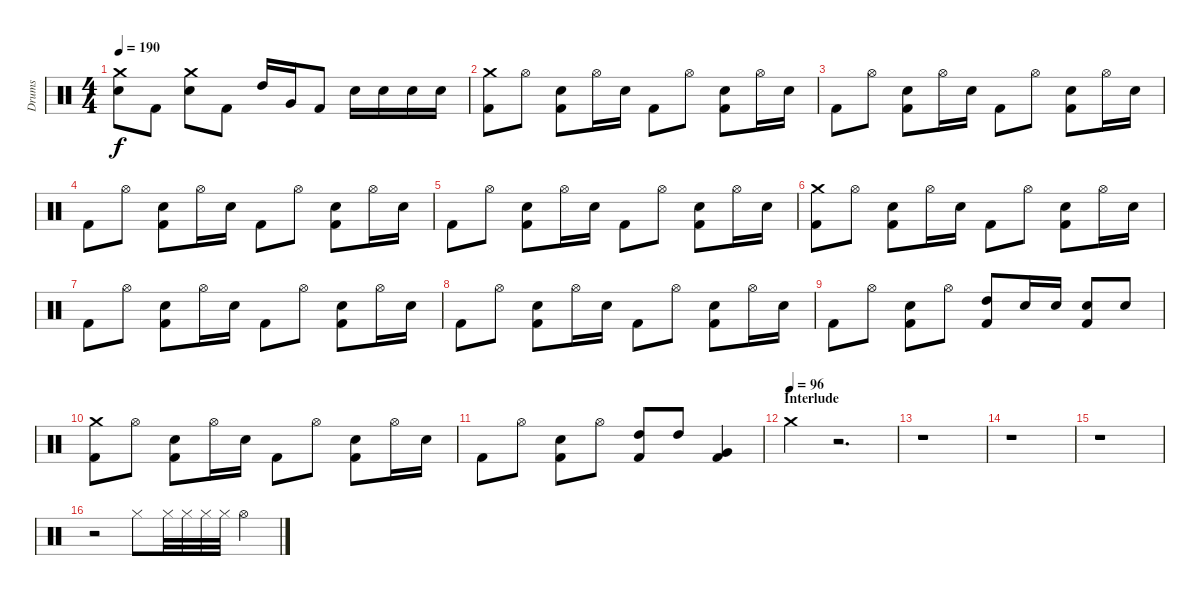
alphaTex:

\track ("Drums" "Drums") {instrument percussion}
\staff {score}
\articulation defaults
\ts (4 4)
\tempo 190
\clef neutral
\ks c
("Crash medium (hit)" "Snare (hit) 2").8{dy f} "Kick (hit) 2".8 ("Crash medium (hit)" "Snare (hit) 2").8 "Kick (hit) 2".8 "High Tom (hit)".16 "Very Low Tom (hit)".16 "Kick (hit) 2".8 "Snare (hit) 2".16 "Snare (hit) 2".16 "Snare (hit) 2".16 "Snare (hit) 2".16 |
("Crash medium (hit)" "Kick (hit) 2").8 "Hi-Hat (open)".8 ("Snare (hit) 2" "Kick (hit) 2").8 "Hi-Hat (open)".16 "Snare (hit) 2".16 "Kick (hit) 2".8 "Hi-Hat (open)".8 ("Snare (hit) 2" "Kick (hit) 2").8 "Hi-Hat (open)".16 "Snare (hit) 2".16 |
"Kick (hit) 2".8 "Hi-Hat (open)".8 ("Snare (hit) 2" "Kick (hit) 2").8 "Hi-Hat (open)".16 "Snare (hit) 2".16 "Kick (hit) 2".8 "Hi-Hat (open)".8 ("Snare (hit) 2" "Kick (hit) 2").8 "Hi-Hat (open)".16 "Snare (hit) 2".16 |
"Kick (hit) 2".8 "Hi-Hat (open)".8 ("Snare (hit) 2" "Kick (hit) 2").8 "Hi-Hat (open)".16 "Snare (hit) 2".16 "Kick (hit) 2".8 "Hi-Hat (open)".8 ("Snare (hit) 2" "Kick (hit) 2").8 "Hi-Hat (open)".16 "Snare (hit) 2".16 |
"Kick (hit) 2".8 "Hi-Hat (open)".8 ("Snare (hit) 2" "Kick (hit) 2").8 "Hi-Hat (open)".16 "Snare (hit) 2".16 "Kick (hit) 2".8 "Hi-Hat (open)".8 ("Snare (hit) 2" "Kick (hit) 2").8 "Hi-Hat (open)".16 "Snare (hit) 2".16 |
("Crash medium (hit)" "Kick (hit) 2").8 "Hi-Hat (open)".8 ("Snare (hit) 2" "Kick (hit) 2").8 "Hi-Hat (open)".16 "Snare (hit) 2".16 "Kick (hit) 2".8 "Hi-Hat (open)".8 ("Snare (hit) 2" "Kick (hit) 2").8 "Hi-Hat (open)".16 "Snare (hit) 2".16 |
"Kick (hit) 2".8 "Hi-Hat (open)".8 ("Snare (hit) 2" "Kick (hit) 2").8 "Hi-Hat (open)".16 "Snare (hit) 2".16 "Kick (hit) 2".8 "Hi-Hat (open)".8 ("Snare (hit) 2" "Kick (hit) 2").8 "Hi-Hat (open)".16 "Snare (hit) 2".16 |
"Kick (hit) 2".8 "Hi-Hat (open)".8 ("Snare (hit) 2" "Kick (hit) 2").8 "Hi-Hat (open)".16 "Snare (hit) 2".16 "Kick (hit) 2".8 "Hi-Hat (open)".8 ("Snare (hit) 2" "Kick (hit) 2").8 "Hi-Hat (open)".16 "Snare (hit) 2".16 |
"Kick (hit) 2".8 "Hi-Hat (open)".8 ("Snare (hit) 2" "Kick (hit) 2").8 "Hi-Hat (open)".8 ("High Tom (hit)" "Kick (hit) 2").8 "Snare (hit) 2".16 "Snare (hit) 2".16 ("Snare (hit) 2" "Kick (hit) 2").8 "Snare (hit) 2".8 |
("Crash medium (hit)" "Kick (hit) 2").8 "Hi-Hat (open)".8 ("Snare (hit) 2" "Kick (hit) 2").8 "Hi-Hat (open)".16 "Snare (hit) 2".16 "Kick (hit) 2".8 "Hi-Hat (open)".8 ("Snare (hit) 2" "Kick (hit) 2").8 "Hi-Hat (open)".16 "Snare (hit) 2".16 |
"Kick (hit) 2".8 "Hi-Hat (open)".8 ("Snare (hit) 2" "Kick (hit) 2").8 "Hi-Hat (open)".8 ("High Tom (hit)" "Kick (hit) 2").8 "High Tom (hit)".8 ("Very Low Tom (hit)" "Kick (hit) 2").4 |
\section ("" "Interlude")
\tempo (96)
"Crash medium (hit)".4 r.2{d} |
r.1 |
r.1 |
r.1 |
r.2 "Hi-Hat (closed)".8 "Hi-Hat (closed)".32 "Hi-Hat (closed)".32 "Hi-Hat (closed)".32 "Hi-Hat (closed)".32 "Hi-Hat (open)".4
